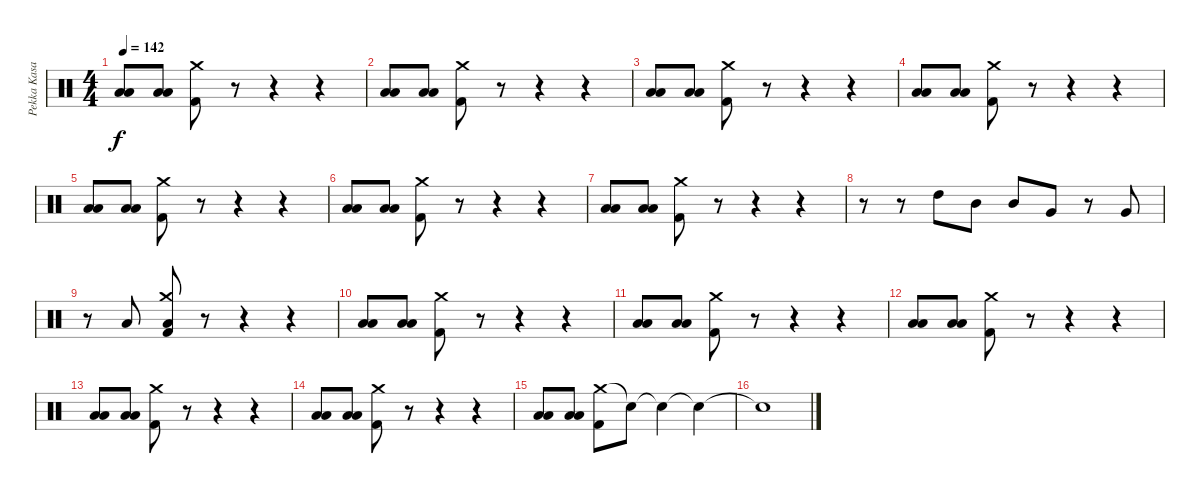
\track ("Pekka Kasari (drums)" "Pekka Kasa") {instrument percussion}
\staff {score}
\articulation defaults
\ts (4 4)
\tempo 142
\clef neutral
\ks c
("Low Tom (hit)" "Low Floor Tom (hit)").8{dy f} ("Low Tom (hit)" "Low Floor Tom (hit)").8 ("Crash medium (hit)" "Kick (hit) 2").8 r.8 r.4 r.4 |
("Low Tom (hit)" "Low Floor Tom (hit)").8 ("Low Tom (hit)" "Low Floor Tom (hit)").8 ("Crash medium (hit)" "Kick (hit) 2").8 r.8 r.4 r.4 |
("Low Tom (hit)" "Low Floor Tom (hit)").8 ("Low Tom (hit)" "Low Floor Tom (hit)").8 ("Crash medium (hit)" "Kick (hit) 2").8 r.8 r.4 r.4 |
("Low Tom (hit)" "Low Floor Tom (hit)").8 ("Low Tom (hit)" "Low Floor Tom (hit)").8 ("Crash medium (hit)" "Kick (hit) 2").8 r.8 r.4 r.4 |
("Low Tom (hit)" "Low Floor Tom (hit)").8 ("Low Tom (hit)" "Low Floor Tom (hit)").8 ("Crash medium (hit)" "Kick (hit) 2").8 r.8 r.4 r.4 |
("Low Tom (hit)" "Low Floor Tom (hit)").8 ("Low Tom (hit)" "Low Floor Tom (hit)").8 ("Crash medium (hit)" "Kick (hit) 2").8 r.8 r.4 r.4 |
("Low Tom (hit)" "Low Floor Tom (hit)").8 ("Low Tom (hit)" "Low Floor Tom (hit)").8 ("Crash medium (hit)" "Kick (hit) 2").8 r.8 r.4 r.4 |
r.8 r.8 "High Tom (hit)".8 "Mid Tom (hit)".8 "Mid Tom (hit)".8 "Very Low Tom (hit)".8 r.8 "Very Low Tom (hit)".8 |
r.8 "Low Floor Tom (hit)".8 ("Crash medium (hit)" "Low Floor Tom (hit)" "Kick (hit) 2").8 r.8 r.4 r.4 |
("Low Tom (hit)" "Low Floor Tom (hit)").8 ("Low Tom (hit)" "Low Floor Tom (hit)").8 ("Crash medium (hit)" "Kick (hit) 2").8 r.8 r.4 r.4 |
("Low Tom (hit)" "Low Floor Tom (hit)").8 ("Low Tom (hit)" "Low Floor Tom (hit)").8 ("Crash medium (hit)" "Kick (hit) 2").8 r.8 r.4 r.4 |
("Low Tom (hit)" "Low Floor Tom (hit)").8 ("Low Tom (hit)" "Low Floor Tom (hit)").8 ("Crash medium (hit)" "Kick (hit) 2").8 r.8 r.4 r.4 |
("Low Tom (hit)" "Low Floor Tom (hit)").8 ("Low Tom (hit)" "Low Floor Tom (hit)").8 ("Crash medium (hit)" "Kick (hit) 2").8 r.8 r.4 r.4 |
("Low Tom (hit)" "Low Floor Tom (hit)").8 ("Low Tom (hit)" "Low Floor Tom (hit)").8 ("Crash medium (hit)" "Kick (hit) 2").8 r.8 r.4 r.4 |
("Low Tom (hit)" "Low Floor Tom (hit)").8 ("Low Tom (hit)" "Low Floor Tom (hit)").8 ("Crash medium (hit)" "Kick (hit) 2").8 "Snare (hit)"{t}.8 "Snare (hit)"{t}.4 "Snare (hit)"{t}.4 |
"Snare (hit)"{t}.1
